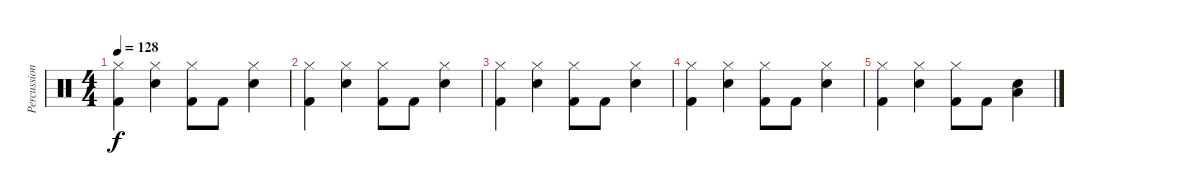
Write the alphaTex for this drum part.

\track ("Percussion" "Percussion") {instrument percussion}
\staff {score}
\articulation defaults
\ts (4 4)
\tempo 128
\clef neutral
\ks c
("Hi-Hat (closed)" "Kick (hit) 2").4{dy f} ("Hi-Hat (closed)" "Snare (hit) 2").4 ("Hi-Hat (closed)" "Kick (hit) 2").8 "Kick (hit) 2".8 ("Hi-Hat (closed)" "Snare (hit) 2").4 |
("Hi-Hat (closed)" "Kick (hit) 2").4 ("Hi-Hat (closed)" "Snare (hit) 2").4 ("Hi-Hat (closed)" "Kick (hit) 2").8 "Kick (hit) 2".8 ("Hi-Hat (closed)" "Snare (hit) 2").4 |
("Hi-Hat (closed)" "Kick (hit) 2").4 ("Hi-Hat (closed)" "Snare (hit) 2").4 ("Hi-Hat (closed)" "Kick (hit) 2").8 "Kick (hit) 2".8 ("Hi-Hat (closed)" "Snare (hit) 2").4 |
("Hi-Hat (closed)" "Kick (hit) 2").4 ("Hi-Hat (closed)" "Snare (hit) 2").4 ("Hi-Hat (closed)" "Kick (hit) 2").8 "Kick (hit) 2".8 ("Hi-Hat (closed)" "Snare (hit) 2").4 |
("Hi-Hat (closed)" "Kick (hit) 2").4 ("Hi-Hat (closed)" "Snare (hit) 2").4 ("Hi-Hat (closed)" "Kick (hit) 2").8 "Kick (hit) 2".8 ("Low Tom (hit)" "Snare (hit) 2").4
